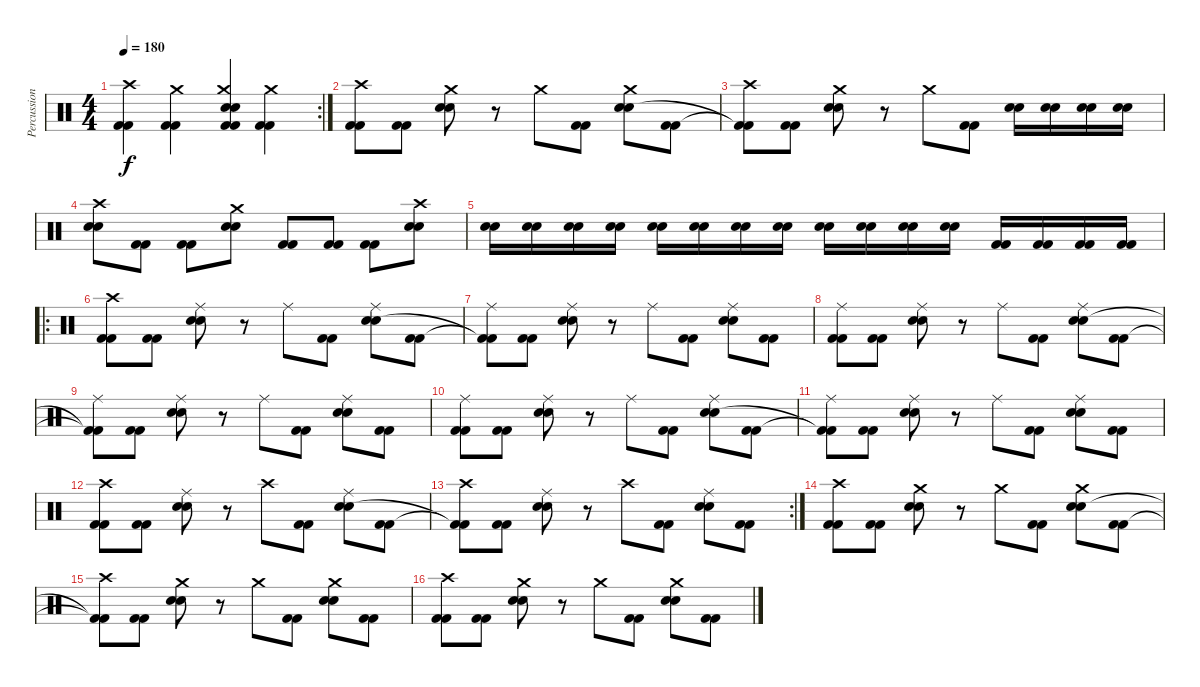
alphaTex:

\track ("Percussion" "Percussion") {instrument percussion}
\staff {score}
\articulation defaults
\rc 2
\ts (4 4)
\tempo 180
\clef neutral
\ks c
("Crash high (hit)" "Kick (hit) 2" "Kick (hit) 2").4{dy f} ("Crash medium (hit)" "Kick (hit) 2" "Kick (hit) 2").4 ("Crash medium (hit)" "Kick (hit) 2" "Kick (hit) 2" "Snare (hit) 2" "Snare (hit) 2").4 ("Crash medium (hit)" "Kick (hit) 2" "Kick (hit) 2").4 |
("Crash high (hit)" "Kick (hit) 2" "Kick (hit) 2").8 ("Kick (hit) 2" "Kick (hit) 2").8 ("Crash medium (hit)" "Snare (hit) 2" "Snare (hit) 2").8 r.8 "Crash medium (hit)".8 ("Kick (hit) 2" "Kick (hit) 2").8 ("Crash medium (hit)" "Snare (hit) 2" "Snare (hit) 2").8 ("Kick (hit) 2" "Kick (hit) 2").8 |
("Crash high (hit)" "Kick (hit) 2"{t} "Kick (hit) 2"{t}).8 ("Kick (hit) 2" "Kick (hit) 2").8 ("Crash medium (hit)" "Snare (hit) 2" "Snare (hit) 2").8 r.8 "Crash medium (hit)".8 ("Kick (hit) 2" "Kick (hit) 2").8 ("Snare (hit) 2" "Snare (hit) 2").16 ("Snare (hit) 2" "Snare (hit) 2").16 ("Snare (hit) 2" "Snare (hit) 2").16 ("Snare (hit) 2" "Snare (hit) 2").16 |
("Crash high (hit)" "Snare (hit) 2" "Snare (hit) 2").8 ("Kick (hit) 2" "Kick (hit) 2").8 ("Kick (hit) 2" "Kick (hit) 2").8 ("Crash medium (hit)" "Snare (hit) 2" "Snare (hit) 2").8 ("Kick (hit) 2" "Kick (hit) 2").8 ("Kick (hit) 2" "Kick (hit) 2").8 ("Kick (hit) 2" "Kick (hit) 2").8 ("Crash high (hit)" "Snare (hit) 2" "Snare (hit) 2").8 |
("Snare (hit) 2" "Snare (hit) 2").16 ("Snare (hit) 2" "Snare (hit) 2").16 ("Snare (hit) 2" "Snare (hit) 2").16 ("Snare (hit) 2" "Snare (hit) 2").16 ("Snare (hit) 2" "Snare (hit) 2").16 ("Snare (hit) 2" "Snare (hit) 2").16 ("Snare (hit) 2" "Snare (hit) 2").16 ("Snare (hit) 2" "Snare (hit) 2").16 ("Snare (hit) 2" "Snare (hit) 2").16 ("Snare (hit) 2" "Snare (hit) 2").16 ("Snare (hit) 2" "Snare (hit) 2").16 ("Snare (hit) 2" "Snare (hit) 2").16 ("Kick (hit) 2" "Kick (hit) 2").16 ("Kick (hit) 2" "Kick (hit) 2").16 ("Kick (hit) 2" "Kick (hit) 2").16 ("Kick (hit) 2" "Kick (hit) 2").16 |
\ro
("Crash high (hit)" "Kick (hit) 2" "Kick (hit) 2").8 ("Kick (hit) 2" "Kick (hit) 2").8 ("Ride (middle)" "Snare (hit) 2" "Snare (hit) 2").8 r.8 "Ride (middle)".8 ("Kick (hit) 2" "Kick (hit) 2").8 ("Ride (middle)" "Snare (hit) 2" "Snare (hit) 2").8 ("Kick (hit) 2" "Kick (hit) 2").8 |
("Ride (middle)" "Kick (hit) 2"{t} "Kick (hit) 2"{t}).8 ("Kick (hit) 2" "Kick (hit) 2").8 ("Ride (middle)" "Snare (hit) 2" "Snare (hit) 2").8 r.8 "Ride (middle)".8 ("Kick (hit) 2" "Kick (hit) 2").8 ("Ride (middle)" "Snare (hit) 2" "Snare (hit) 2").8 ("Kick (hit) 2" "Kick (hit) 2").8 |
("Ride (middle)" "Kick (hit) 2" "Kick (hit) 2").8 ("Kick (hit) 2" "Kick (hit) 2").8 ("Ride (middle)" "Snare (hit) 2" "Snare (hit) 2").8 r.8 "Ride (middle)".8 ("Kick (hit) 2" "Kick (hit) 2").8 ("Ride (middle)" "Snare (hit) 2" "Snare (hit) 2").8 ("Kick (hit) 2" "Kick (hit) 2").8 |
("Ride (middle)" "Kick (hit) 2"{t} "Kick (hit) 2"{t}).8 ("Kick (hit) 2" "Kick (hit) 2").8 ("Ride (middle)" "Snare (hit) 2" "Snare (hit) 2").8 r.8 "Ride (middle)".8 ("Kick (hit) 2" "Kick (hit) 2").8 ("Ride (middle)" "Snare (hit) 2" "Snare (hit) 2").8 ("Kick (hit) 2" "Kick (hit) 2").8 |
("Ride (middle)" "Kick (hit) 2" "Kick (hit) 2").8 ("Kick (hit) 2" "Kick (hit) 2").8 ("Ride (middle)" "Snare (hit) 2" "Snare (hit) 2").8 r.8 "Ride (middle)".8 ("Kick (hit) 2" "Kick (hit) 2").8 ("Ride (middle)" "Snare (hit) 2" "Snare (hit) 2").8 ("Kick (hit) 2" "Kick (hit) 2").8 |
("Ride (middle)" "Kick (hit) 2"{t} "Kick (hit) 2"{t}).8 ("Kick (hit) 2" "Kick (hit) 2").8 ("Ride (middle)" "Snare (hit) 2" "Snare (hit) 2").8 r.8 "Ride (middle)".8 ("Kick (hit) 2" "Kick (hit) 2").8 ("Ride (middle)" "Snare (hit) 2" "Snare (hit) 2").8 ("Kick (hit) 2" "Kick (hit) 2").8 |
("Crash high (hit)" "Kick (hit) 2" "Kick (hit) 2").8 ("Kick (hit) 2" "Kick (hit) 2").8 ("Ride (middle)" "Snare (hit) 2" "Snare (hit) 2").8 r.8 "Crash high (hit)".8 ("Kick (hit) 2" "Kick (hit) 2").8 ("Ride (middle)" "Snare (hit) 2" "Snare (hit) 2").8 ("Kick (hit) 2" "Kick (hit) 2").8 |
\rc 2
("Crash high (hit)" "Kick (hit) 2"{t} "Kick (hit) 2"{t}).8 ("Kick (hit) 2" "Kick (hit) 2").8 ("Ride (middle)" "Snare (hit) 2" "Snare (hit) 2").8 r.8 "Crash high (hit)".8 ("Kick (hit) 2" "Kick (hit) 2").8 ("Ride (middle)" "Snare (hit) 2" "Snare (hit) 2").8 ("Kick (hit) 2" "Kick (hit) 2").8 |
("Crash high (hit)" "Kick (hit) 2" "Kick (hit) 2").8 ("Kick (hit) 2" "Kick (hit) 2").8 ("Crash medium (hit)" "Snare (hit) 2" "Snare (hit) 2").8 r.8 "Crash medium (hit)".8 ("Kick (hit) 2" "Kick (hit) 2").8 ("Crash medium (hit)" "Snare (hit) 2" "Snare (hit) 2").8 ("Kick (hit) 2" "Kick (hit) 2").8 |
("Crash high (hit)" "Kick (hit) 2"{t} "Kick (hit) 2"{t}).8 ("Kick (hit) 2" "Kick (hit) 2").8 ("Crash medium (hit)" "Snare (hit) 2" "Snare (hit) 2").8 r.8 "Crash medium (hit)".8 ("Kick (hit) 2" "Kick (hit) 2").8 ("Crash medium (hit)" "Snare (hit) 2" "Snare (hit) 2").8 ("Kick (hit) 2" "Kick (hit) 2").8 |
("Crash high (hit)" "Kick (hit) 2" "Kick (hit) 2").8 ("Kick (hit) 2" "Kick (hit) 2").8 ("Crash medium (hit)" "Snare (hit) 2" "Snare (hit) 2").8 r.8 "Crash medium (hit)".8 ("Kick (hit) 2" "Kick (hit) 2").8 ("Crash medium (hit)" "Snare (hit) 2" "Snare (hit) 2").8 ("Kick (hit) 2" "Kick (hit) 2").8
